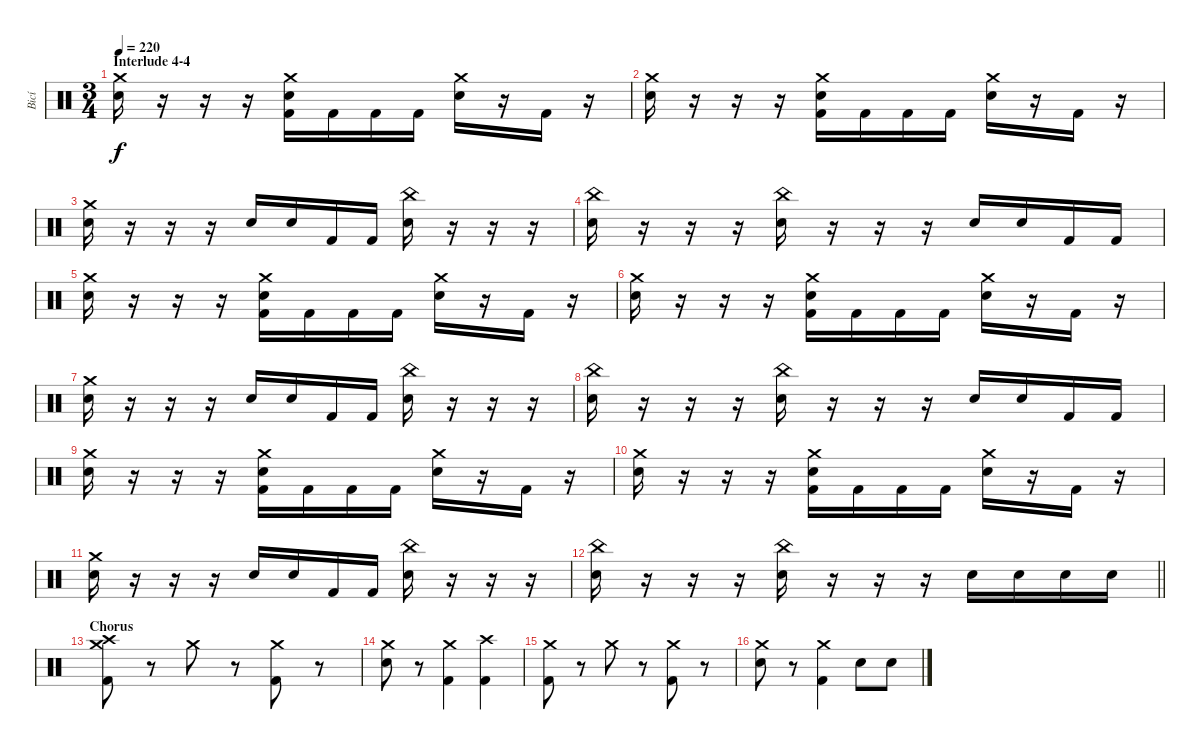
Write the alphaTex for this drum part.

\track ("Bicí" "Bicí") {instrument percussion}
\staff {score}
\articulation defaults
\ts (3 4)
\section ("" "Interlude 4-4")
\tempo 220
\clef neutral
\ks c
("Crash medium (hit)" "Electric Snare (hit)").16{dy f} r.16 r.16 r.16 ("Crash medium (hit)" "Electric Snare (hit)" "Kick (hit) 2").16 "Kick (hit) 2".16 "Kick (hit) 2".16 "Kick (hit) 2".16 ("Crash medium (hit)" "Electric Snare (hit)").16 r.16 "Kick (hit) 2".16 r.16 |
("Crash medium (hit)" "Electric Snare (hit)").16 r.16 r.16 r.16 ("Crash medium (hit)" "Electric Snare (hit)" "Kick (hit) 2").16 "Kick (hit) 2".16 "Kick (hit) 2".16 "Kick (hit) 2".16 ("Crash medium (hit)" "Electric Snare (hit)").16 r.16 "Kick (hit) 2".16 r.16 |
("Crash medium (hit)" "Electric Snare (hit)").16 r.16 r.16 r.16 "Electric Snare (hit)".16 "Electric Snare (hit)".16 "Kick (hit) 2".16 "Kick (hit) 2".16 ("China (hit)" "Electric Snare (hit)").16 r.16 r.16 r.16 |
("China (hit)" "Electric Snare (hit)").16 r.16 r.16 r.16 ("China (hit)" "Electric Snare (hit)").16 r.16 r.16 r.16 "Electric Snare (hit)".16 "Electric Snare (hit)".16 "Kick (hit) 2".16 "Kick (hit) 2".16 |
("Crash medium (hit)" "Electric Snare (hit)").16 r.16 r.16 r.16 ("Crash medium (hit)" "Electric Snare (hit)" "Kick (hit) 2").16 "Kick (hit) 2".16 "Kick (hit) 2".16 "Kick (hit) 2".16 ("Crash medium (hit)" "Electric Snare (hit)").16 r.16 "Kick (hit) 2".16 r.16 |
("Crash medium (hit)" "Electric Snare (hit)").16 r.16 r.16 r.16 ("Crash medium (hit)" "Electric Snare (hit)" "Kick (hit) 2").16 "Kick (hit) 2".16 "Kick (hit) 2".16 "Kick (hit) 2".16 ("Crash medium (hit)" "Electric Snare (hit)").16 r.16 "Kick (hit) 2".16 r.16 |
("Crash medium (hit)" "Electric Snare (hit)").16 r.16 r.16 r.16 "Electric Snare (hit)".16 "Electric Snare (hit)".16 "Kick (hit) 2".16 "Kick (hit) 2".16 ("China (hit)" "Electric Snare (hit)").16 r.16 r.16 r.16 |
("China (hit)" "Electric Snare (hit)").16 r.16 r.16 r.16 ("China (hit)" "Electric Snare (hit)").16 r.16 r.16 r.16 "Electric Snare (hit)".16 "Electric Snare (hit)".16 "Kick (hit) 2".16 "Kick (hit) 2".16 |
("Crash medium (hit)" "Electric Snare (hit)").16 r.16 r.16 r.16 ("Crash medium (hit)" "Electric Snare (hit)" "Kick (hit) 2").16 "Kick (hit) 2".16 "Kick (hit) 2".16 "Kick (hit) 2".16 ("Crash medium (hit)" "Electric Snare (hit)").16 r.16 "Kick (hit) 2".16 r.16 |
("Crash medium (hit)" "Electric Snare (hit)").16 r.16 r.16 r.16 ("Crash medium (hit)" "Electric Snare (hit)" "Kick (hit) 2").16 "Kick (hit) 2".16 "Kick (hit) 2".16 "Kick (hit) 2".16 ("Crash medium (hit)" "Electric Snare (hit)").16 r.16 "Kick (hit) 2".16 r.16 |
("Crash medium (hit)" "Electric Snare (hit)").16 r.16 r.16 r.16 "Electric Snare (hit)".16 "Electric Snare (hit)".16 "Kick (hit) 2".16 "Kick (hit) 2".16 ("China (hit)" "Electric Snare (hit)").16 r.16 r.16 r.16 |
\barLineRight lightlight
("China (hit)" "Electric Snare (hit)").16 r.16 r.16 r.16 ("China (hit)" "Electric Snare (hit)").16 r.16 r.16 r.16 "Electric Snare (hit)".16 "Electric Snare (hit)".16 "Electric Snare (hit)".16 "Electric Snare (hit)".16 |
\section ("" "Chorus")
("Crash medium (hit)" "Crash high (hit)" "Kick (hit) 2").8 r.8 "Crash medium (hit)".8 r.8 ("Crash medium (hit)" "Kick (hit) 2").8 r.8 |
("Crash medium (hit)" "Electric Snare (hit)").8 r.8 ("Crash medium (hit)" "Kick (hit) 2").4 ("Crash high (hit)" "Kick (hit) 2").4 |
("Crash medium (hit)" "Kick (hit) 2").8 r.8 "Crash medium (hit)".8 r.8 ("Crash medium (hit)" "Kick (hit) 2").8 r.8 |
("Crash medium (hit)" "Electric Snare (hit)").8 r.8 ("Crash medium (hit)" "Kick (hit) 2").4 "Electric Snare (hit)".8 "Electric Snare (hit)".8
